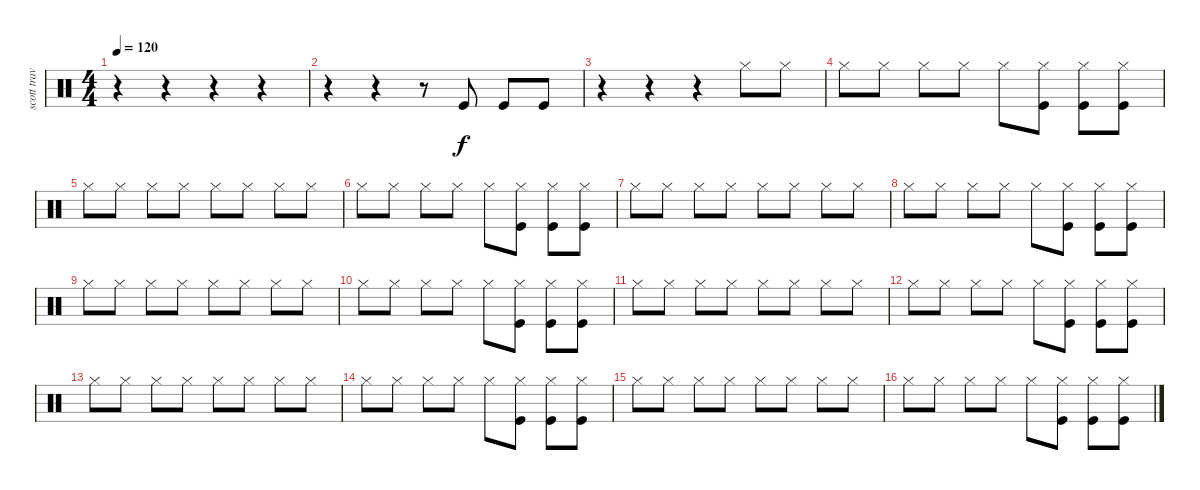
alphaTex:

\track ("scott travis" "scott trav") {instrument percussion}
\staff {score}
\articulation defaults
\ts (4 4)
\tempo 120
\clef neutral
\ks c
r.4{dy f} r.4 r.4 r.4 |
r.4 r.4 r.8 "Kick (hit)".8 "Kick (hit)".8 "Kick (hit)".8 |
r.4 r.4 r.4 "Hi-Hat (closed)".8 "Hi-Hat (closed)".8 |
"Hi-Hat (closed)".8 "Hi-Hat (closed)".8 "Hi-Hat (closed)".8 "Hi-Hat (closed)".8 "Hi-Hat (closed)".8 ("Kick (hit)" "Hi-Hat (closed)").8 ("Kick (hit)" "Hi-Hat (closed)").8 ("Kick (hit)" "Hi-Hat (closed)").8 |
"Hi-Hat (closed)".8 "Hi-Hat (closed)".8 "Hi-Hat (closed)".8 "Hi-Hat (closed)".8 "Hi-Hat (closed)".8 "Hi-Hat (closed)".8 "Hi-Hat (closed)".8 "Hi-Hat (closed)".8 |
"Hi-Hat (closed)".8 "Hi-Hat (closed)".8 "Hi-Hat (closed)".8 "Hi-Hat (closed)".8 "Hi-Hat (closed)".8 ("Kick (hit)" "Hi-Hat (closed)").8 ("Kick (hit)" "Hi-Hat (closed)").8 ("Kick (hit)" "Hi-Hat (closed)").8 |
"Hi-Hat (closed)".8 "Hi-Hat (closed)".8 "Hi-Hat (closed)".8 "Hi-Hat (closed)".8 "Hi-Hat (closed)".8 "Hi-Hat (closed)".8 "Hi-Hat (closed)".8 "Hi-Hat (closed)".8 |
"Hi-Hat (closed)".8 "Hi-Hat (closed)".8 "Hi-Hat (closed)".8 "Hi-Hat (closed)".8 "Hi-Hat (closed)".8 ("Kick (hit)" "Hi-Hat (closed)").8 ("Kick (hit)" "Hi-Hat (closed)").8 ("Kick (hit)" "Hi-Hat (closed)").8 |
"Hi-Hat (closed)".8 "Hi-Hat (closed)".8 "Hi-Hat (closed)".8 "Hi-Hat (closed)".8 "Hi-Hat (closed)".8 "Hi-Hat (closed)".8 "Hi-Hat (closed)".8 "Hi-Hat (closed)".8 |
"Hi-Hat (closed)".8 "Hi-Hat (closed)".8 "Hi-Hat (closed)".8 "Hi-Hat (closed)".8 "Hi-Hat (closed)".8 ("Kick (hit)" "Hi-Hat (closed)").8 ("Kick (hit)" "Hi-Hat (closed)").8 ("Kick (hit)" "Hi-Hat (closed)").8 |
"Hi-Hat (closed)".8 "Hi-Hat (closed)".8 "Hi-Hat (closed)".8 "Hi-Hat (closed)".8 "Hi-Hat (closed)".8 "Hi-Hat (closed)".8 "Hi-Hat (closed)".8 "Hi-Hat (closed)".8 |
"Hi-Hat (closed)".8 "Hi-Hat (closed)".8 "Hi-Hat (closed)".8 "Hi-Hat (closed)".8 "Hi-Hat (closed)".8 ("Kick (hit)" "Hi-Hat (closed)").8 ("Kick (hit)" "Hi-Hat (closed)").8 ("Kick (hit)" "Hi-Hat (closed)").8 |
"Hi-Hat (closed)".8 "Hi-Hat (closed)".8 "Hi-Hat (closed)".8 "Hi-Hat (closed)".8 "Hi-Hat (closed)".8 "Hi-Hat (closed)".8 "Hi-Hat (closed)".8 "Hi-Hat (closed)".8 |
"Hi-Hat (closed)".8 "Hi-Hat (closed)".8 "Hi-Hat (closed)".8 "Hi-Hat (closed)".8 "Hi-Hat (closed)".8 ("Kick (hit)" "Hi-Hat (closed)").8 ("Kick (hit)" "Hi-Hat (closed)").8 ("Kick (hit)" "Hi-Hat (closed)").8 |
"Hi-Hat (closed)".8 "Hi-Hat (closed)".8 "Hi-Hat (closed)".8 "Hi-Hat (closed)".8 "Hi-Hat (closed)".8 "Hi-Hat (closed)".8 "Hi-Hat (closed)".8 "Hi-Hat (closed)".8 |
"Hi-Hat (closed)".8 "Hi-Hat (closed)".8 "Hi-Hat (closed)".8 "Hi-Hat (closed)".8 "Hi-Hat (closed)".8 ("Kick (hit)" "Hi-Hat (closed)").8 ("Kick (hit)" "Hi-Hat (closed)").8 ("Kick (hit)" "Hi-Hat (closed)").8
